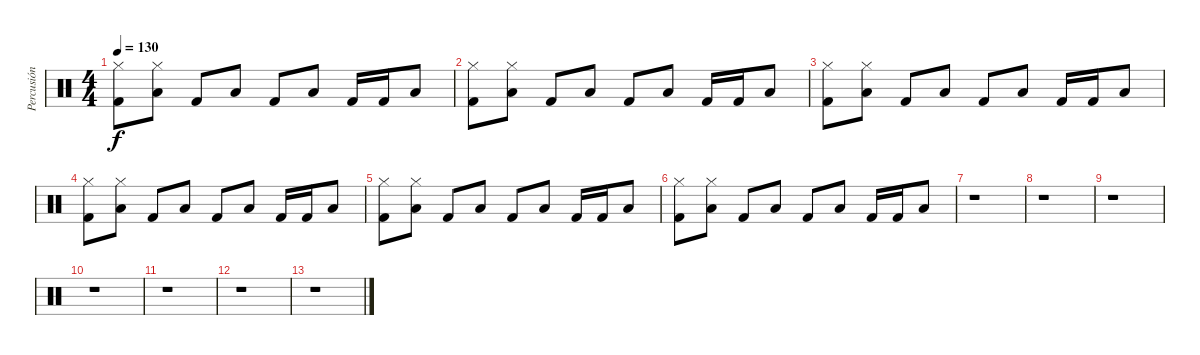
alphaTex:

\track ("Percusión" "Percusión") {instrument percussion}
\staff {score}
\articulation defaults
\ts (4 4)
\tempo 130
\clef neutral
\ks c
("Hi-Hat (closed)" "Kick (hit) 2").8{dy f} ("Hi-Hat (closed)" "Low Tom (hit)").8 "Kick (hit) 2".8 "Low Tom (hit)".8 "Kick (hit) 2".8 "Low Tom (hit)".8 "Kick (hit) 2".16 "Kick (hit) 2".16 "Low Tom (hit)".8 |
("Hi-Hat (closed)" "Kick (hit) 2").8 ("Hi-Hat (closed)" "Low Tom (hit)").8 "Kick (hit) 2".8 "Low Tom (hit)".8 "Kick (hit) 2".8 "Low Tom (hit)".8 "Kick (hit) 2".16 "Kick (hit) 2".16 "Low Tom (hit)".8 |
("Hi-Hat (closed)" "Kick (hit) 2").8 ("Hi-Hat (closed)" "Low Tom (hit)").8 "Kick (hit) 2".8 "Low Tom (hit)".8 "Kick (hit) 2".8 "Low Tom (hit)".8 "Kick (hit) 2".16 "Kick (hit) 2".16 "Low Tom (hit)".8 |
("Hi-Hat (closed)" "Kick (hit) 2").8 ("Hi-Hat (closed)" "Low Tom (hit)").8 "Kick (hit) 2".8 "Low Tom (hit)".8 "Kick (hit) 2".8 "Low Tom (hit)".8 "Kick (hit) 2".16 "Kick (hit) 2".16 "Low Tom (hit)".8 |
("Hi-Hat (closed)" "Kick (hit) 2").8 ("Hi-Hat (closed)" "Low Tom (hit)").8 "Kick (hit) 2".8 "Low Tom (hit)".8 "Kick (hit) 2".8 "Low Tom (hit)".8 "Kick (hit) 2".16 "Kick (hit) 2".16 "Low Tom (hit)".8 |
("Hi-Hat (closed)" "Kick (hit) 2").8 ("Hi-Hat (closed)" "Low Tom (hit)").8 "Kick (hit) 2".8 "Low Tom (hit)".8 "Kick (hit) 2".8 "Low Tom (hit)".8 "Kick (hit) 2".16 "Kick (hit) 2".16 "Low Tom (hit)".8 |
r.1 |
r.1 |
r.1 |
r.1 |
r.1 |
r.1 |
r.1
